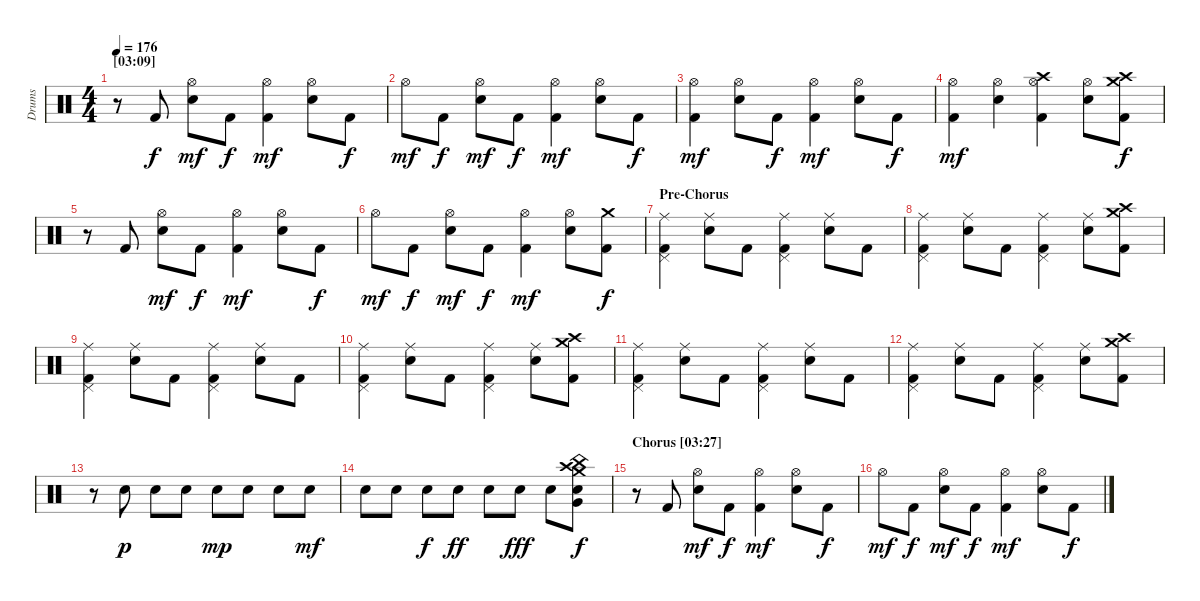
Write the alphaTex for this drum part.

\track ("Drums" "Drums") {instrument percussion}
\staff {score}
\articulation defaults
\ts (4 4)
\section ("" "[03:09]")
\tempo 176
\clef neutral
\ks c
r.8{dy f} "Kick (hit) 2".8 ("Hi-Hat (open)" "Electric Snare (hit)").8{dy mf} "Kick (hit) 2".8{dy f} ("Hi-Hat (open)" "Kick (hit) 2").4{dy mf} ("Hi-Hat (open)" "Electric Snare (hit)").8 "Kick (hit) 2".8{dy f} |
"Hi-Hat (open)".8{dy mf} "Kick (hit) 2".8{dy f} ("Hi-Hat (open)" "Electric Snare (hit)").8{dy mf} "Kick (hit) 2".8{dy f} ("Hi-Hat (open)" "Kick (hit) 2").4{dy mf} ("Hi-Hat (open)" "Electric Snare (hit)").8 "Kick (hit) 2".8{dy f} |
("Hi-Hat (open)" "Kick (hit) 2").4{dy mf} ("Hi-Hat (open)" "Electric Snare (hit)").8 "Kick (hit) 2".8{dy f} ("Hi-Hat (open)" "Kick (hit) 2").4{dy mf} ("Hi-Hat (open)" "Electric Snare (hit)").8 "Kick (hit) 2".8{dy f} |
("Hi-Hat (open)" "Kick (hit) 2").4{dy mf} ("Hi-Hat (open)" "Electric Snare (hit)").4 ("Hi-Hat (open)" "Crash high (hit)" "Kick (hit) 2").4 ("Hi-Hat (open)" "Electric Snare (hit)").8 ("Crash medium (hit)" "Crash high (hit)" "Kick (hit) 2").8{dy f} |
r.8 "Kick (hit) 2".8 ("Hi-Hat (open)" "Electric Snare (hit)").8{dy mf} "Kick (hit) 2".8{dy f} ("Hi-Hat (open)" "Kick (hit) 2").4{dy mf} ("Hi-Hat (open)" "Electric Snare (hit)").8 "Kick (hit) 2".8{dy f} |
"Hi-Hat (open)".8{dy mf} "Kick (hit) 2".8{dy f} ("Hi-Hat (open)" "Electric Snare (hit)").8{dy mf} "Kick (hit) 2".8{dy f} ("Hi-Hat (open)" "Kick (hit) 2").4{dy mf} ("Hi-Hat (open)" "Electric Snare (hit)").8 ("Crash medium (hit)" "Kick (hit) 2").8{dy f} |
\section ("" "Pre-Chorus")
("Pedal Hi-Hat (hit)" "Ride (middle)" "Kick (hit) 2").4 ("Ride (middle)" "Electric Snare (hit)").8 "Kick (hit) 2".8 ("Pedal Hi-Hat (hit)" "Ride (middle)" "Kick (hit) 2").4 ("Ride (middle)" "Electric Snare (hit)").8 "Kick (hit) 2".8 |
("Pedal Hi-Hat (hit)" "Ride (middle)" "Kick (hit) 2").4 ("Ride (middle)" "Electric Snare (hit)").8 "Kick (hit) 2".8 ("Pedal Hi-Hat (hit)" "Ride (middle)" "Kick (hit) 2").4 ("Ride (middle)" "Electric Snare (hit)").8 ("Crash medium (hit)" "Crash high (hit)" "Kick (hit) 2").8 |
("Pedal Hi-Hat (hit)" "Ride (middle)" "Kick (hit) 2").4 ("Ride (middle)" "Electric Snare (hit)").8 "Kick (hit) 2".8 ("Pedal Hi-Hat (hit)" "Ride (middle)" "Kick (hit) 2").4 ("Ride (middle)" "Electric Snare (hit)").8 "Kick (hit) 2".8 |
("Pedal Hi-Hat (hit)" "Ride (middle)" "Kick (hit) 2").4 ("Ride (middle)" "Electric Snare (hit)").8 "Kick (hit) 2".8 ("Pedal Hi-Hat (hit)" "Ride (middle)" "Kick (hit) 2").4 ("Ride (middle)" "Electric Snare (hit)").8 ("Crash medium (hit)" "Crash high (hit)" "Kick (hit) 2").8 |
("Pedal Hi-Hat (hit)" "Ride (middle)" "Kick (hit) 2").4 ("Ride (middle)" "Electric Snare (hit)").8 "Kick (hit) 2".8 ("Pedal Hi-Hat (hit)" "Ride (middle)" "Kick (hit) 2").4 ("Ride (middle)" "Electric Snare (hit)").8 "Kick (hit) 2".8 |
("Pedal Hi-Hat (hit)" "Ride (middle)" "Kick (hit) 2").4 ("Ride (middle)" "Electric Snare (hit)").8 "Kick (hit) 2".8 ("Pedal Hi-Hat (hit)" "Ride (middle)" "Kick (hit) 2").4 ("Ride (middle)" "Electric Snare (hit)").8 ("Crash medium (hit)" "Crash high (hit)" "Kick (hit) 2").8 |
r.8 "Electric Snare (hit)".8{dy p} "Electric Snare (hit)".8 "Electric Snare (hit)".8 "Electric Snare (hit)".8{dy mp} "Electric Snare (hit)".8 "Electric Snare (hit)".8 "Electric Snare (hit)".8{dy mf} |
"Electric Snare (hit)".8 "Electric Snare (hit)".8 "Electric Snare (hit)".8{dy f} "Electric Snare (hit)".8{dy ff} "Electric Snare (hit)".8 "Electric Snare (hit)".8{dy fff} "Electric Snare (hit)".8 ("Crash medium (hit)" "Crash high (hit)" "China (hit)" "Snare (hit) 2" "Very Low Tom (hit)").8{dy f} |
\section ("" "Chorus [03:27]")
r.8 "Kick (hit) 2".8 ("Hi-Hat (open)" "Electric Snare (hit)").8{dy mf} "Kick (hit) 2".8{dy f} ("Hi-Hat (open)" "Kick (hit) 2").4{dy mf} ("Hi-Hat (open)" "Electric Snare (hit)").8 "Kick (hit) 2".8{dy f} |
"Hi-Hat (open)".8{dy mf} "Kick (hit) 2".8{dy f} ("Hi-Hat (open)" "Electric Snare (hit)").8{dy mf} "Kick (hit) 2".8{dy f} ("Hi-Hat (open)" "Kick (hit) 2").4{dy mf} ("Hi-Hat (open)" "Electric Snare (hit)").8 "Kick (hit) 2".8{dy f}
